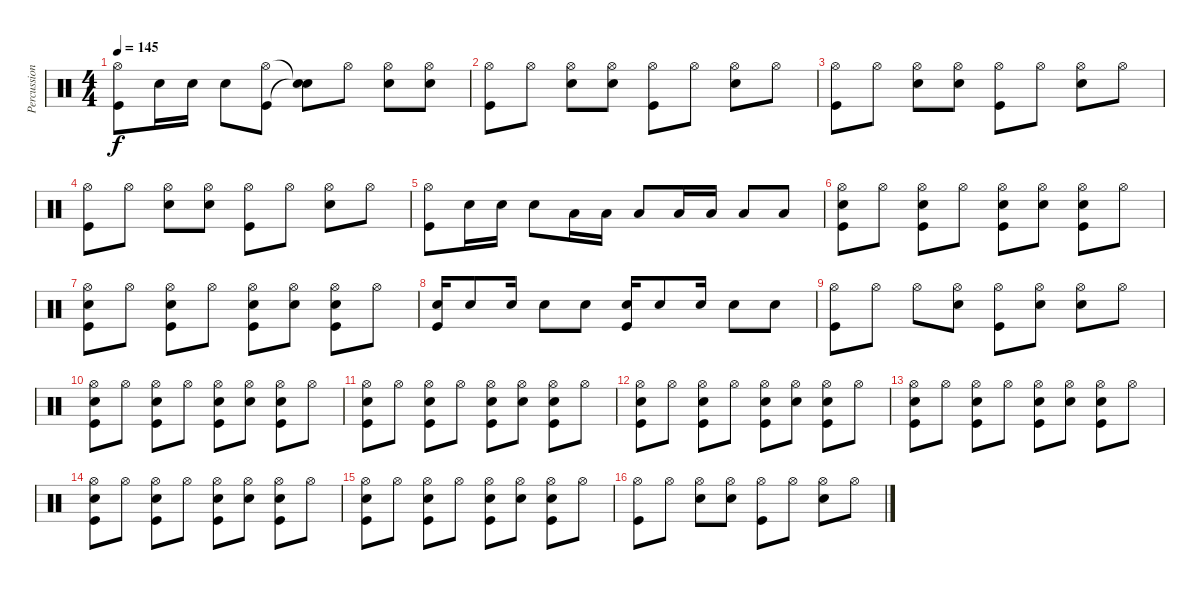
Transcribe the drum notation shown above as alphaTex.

\track ("Percussion" "Percussion") {instrument percussion}
\staff {score}
\articulation defaults
\ts (4 4)
\tempo 145
\clef neutral
\ks c
("Hi-Hat (open)" "Kick (hit)").8{dy f} "Snare (hit) 2".16 "Snare (hit) 2".16 "Snare (hit) 2".8 ("Hi-Hat (open)" "Kick (hit)").8 ("Snare (hit)"{t} "Snare (hit)"{t}).8 "Hi-Hat (open)".8 ("Hi-Hat (open)" "Snare (hit) 2").8 ("Hi-Hat (open)" "Snare (hit) 2").8 |
("Hi-Hat (open)" "Kick (hit)").8 "Hi-Hat (open)".8 ("Hi-Hat (open)" "Snare (hit) 2").8 ("Hi-Hat (open)" "Snare (hit) 2").8 ("Hi-Hat (open)" "Kick (hit)").8 "Hi-Hat (open)".8 ("Hi-Hat (open)" "Snare (hit) 2").8 "Hi-Hat (open)".8 |
("Hi-Hat (open)" "Kick (hit)").8 "Hi-Hat (open)".8 ("Hi-Hat (open)" "Snare (hit) 2").8 ("Hi-Hat (open)" "Snare (hit) 2").8 ("Hi-Hat (open)" "Kick (hit)").8 "Hi-Hat (open)".8 ("Hi-Hat (open)" "Snare (hit) 2").8 "Hi-Hat (open)".8 |
("Hi-Hat (open)" "Kick (hit)").8 "Hi-Hat (open)".8 ("Hi-Hat (open)" "Snare (hit) 2").8 ("Hi-Hat (open)" "Snare (hit) 2").8 ("Hi-Hat (open)" "Kick (hit)").8 "Hi-Hat (open)".8 ("Hi-Hat (open)" "Snare (hit) 2").8 "Hi-Hat (open)".8 |
("Hi-Hat (open)" "Kick (hit)").8 "Snare (hit) 2".16 "Snare (hit) 2".16 "Snare (hit) 2".8 "Low Tom (hit)".16 "Low Tom (hit)".16 "Low Tom (hit)".8 "Low Tom (hit)".16 "Low Tom (hit)".16 "Low Tom (hit)".8 "Low Tom (hit)".8 |
("Hi-Hat (open)" "Snare (hit) 2" "Kick (hit)").8 "Hi-Hat (open)".8 ("Hi-Hat (open)" "Snare (hit) 2" "Kick (hit)").8 "Hi-Hat (open)".8 ("Hi-Hat (open)" "Snare (hit) 2" "Kick (hit)").8 ("Hi-Hat (open)" "Snare (hit) 2").8 ("Hi-Hat (open)" "Snare (hit) 2" "Kick (hit)").8 "Hi-Hat (open)".8 |
("Hi-Hat (open)" "Snare (hit) 2" "Kick (hit)").8 "Hi-Hat (open)".8 ("Hi-Hat (open)" "Snare (hit) 2" "Kick (hit)").8 "Hi-Hat (open)".8 ("Hi-Hat (open)" "Snare (hit) 2" "Kick (hit)").8 ("Hi-Hat (open)" "Snare (hit) 2").8 ("Hi-Hat (open)" "Snare (hit) 2" "Kick (hit)").8 "Hi-Hat (open)".8 |
("Snare (hit) 2" "Kick (hit)").16 "Snare (hit) 2".8 "Snare (hit) 2".16 "Snare (hit) 2".8 "Snare (hit) 2".8 ("Snare (hit) 2" "Kick (hit)").16 "Snare (hit) 2".8 "Snare (hit) 2".16 "Snare (hit) 2".8 "Snare (hit) 2".8 |
("Hi-Hat (open)" "Kick (hit)").8 "Hi-Hat (open)".8 "Hi-Hat (open)".8 ("Hi-Hat (open)" "Snare (hit) 2").8 ("Hi-Hat (open)" "Kick (hit)").8 ("Hi-Hat (open)" "Snare (hit) 2").8 ("Hi-Hat (open)" "Snare (hit) 2").8 "Hi-Hat (open)".8 |
("Hi-Hat (open)" "Snare (hit) 2" "Kick (hit)").8 "Hi-Hat (open)".8 ("Hi-Hat (open)" "Snare (hit) 2" "Kick (hit)").8 "Hi-Hat (open)".8 ("Hi-Hat (open)" "Snare (hit) 2" "Kick (hit)").8 ("Hi-Hat (open)" "Snare (hit) 2").8 ("Hi-Hat (open)" "Snare (hit) 2" "Kick (hit)").8 "Hi-Hat (open)".8 |
("Hi-Hat (open)" "Snare (hit) 2" "Kick (hit)").8 "Hi-Hat (open)".8 ("Hi-Hat (open)" "Snare (hit) 2" "Kick (hit)").8 "Hi-Hat (open)".8 ("Hi-Hat (open)" "Snare (hit) 2" "Kick (hit)").8 ("Hi-Hat (open)" "Snare (hit) 2").8 ("Hi-Hat (open)" "Snare (hit) 2" "Kick (hit)").8 "Hi-Hat (open)".8 |
("Hi-Hat (open)" "Snare (hit) 2" "Kick (hit)").8 "Hi-Hat (open)".8 ("Hi-Hat (open)" "Snare (hit) 2" "Kick (hit)").8 "Hi-Hat (open)".8 ("Hi-Hat (open)" "Snare (hit) 2" "Kick (hit)").8 ("Hi-Hat (open)" "Snare (hit) 2").8 ("Hi-Hat (open)" "Snare (hit) 2" "Kick (hit)").8 "Hi-Hat (open)".8 |
("Hi-Hat (open)" "Snare (hit) 2" "Kick (hit)").8 "Hi-Hat (open)".8 ("Hi-Hat (open)" "Snare (hit) 2" "Kick (hit)").8 "Hi-Hat (open)".8 ("Hi-Hat (open)" "Snare (hit) 2" "Kick (hit)").8 ("Hi-Hat (open)" "Snare (hit) 2").8 ("Hi-Hat (open)" "Snare (hit) 2" "Kick (hit)").8 "Hi-Hat (open)".8 |
("Hi-Hat (open)" "Snare (hit) 2" "Kick (hit)").8 "Hi-Hat (open)".8 ("Hi-Hat (open)" "Snare (hit) 2" "Kick (hit)").8 "Hi-Hat (open)".8 ("Hi-Hat (open)" "Snare (hit) 2" "Kick (hit)").8 ("Hi-Hat (open)" "Snare (hit) 2").8 ("Hi-Hat (open)" "Snare (hit) 2" "Kick (hit)").8 "Hi-Hat (open)".8 |
("Hi-Hat (open)" "Snare (hit) 2" "Kick (hit)").8 "Hi-Hat (open)".8 ("Hi-Hat (open)" "Snare (hit) 2" "Kick (hit)").8 "Hi-Hat (open)".8 ("Hi-Hat (open)" "Snare (hit) 2" "Kick (hit)").8 ("Hi-Hat (open)" "Snare (hit) 2").8 ("Hi-Hat (open)" "Snare (hit) 2" "Kick (hit)").8 "Hi-Hat (open)".8 |
("Hi-Hat (open)" "Kick (hit)").8 "Hi-Hat (open)".8 ("Hi-Hat (open)" "Snare (hit) 2").8 ("Hi-Hat (open)" "Snare (hit) 2").8 ("Hi-Hat (open)" "Kick (hit)").8 "Hi-Hat (open)".8 ("Hi-Hat (open)" "Snare (hit) 2").8 "Hi-Hat (open)".8
